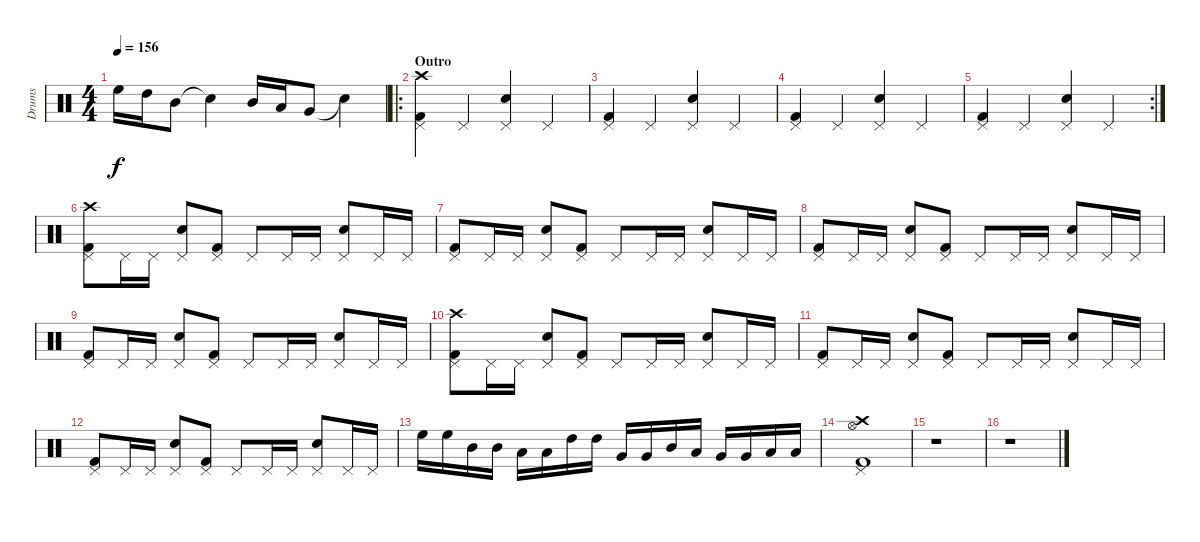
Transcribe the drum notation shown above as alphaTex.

\track ("Drums" "Drums") {instrument percussion}
\staff {score}
\articulation defaults
\ts (4 4)
\tempo 156
\clef neutral
\ks c "High Floor Tom (hit)".16{dy f} "High Tom (hit)".16 "Mid Tom (hit)".8 "Snare (hit)"{t}.4 "Mid Tom (hit)".16 "Low Tom (hit)".16 "Very Low Tom (hit)".8 "Snare (hit)"{t}.4
|
\ro
\section ("" "Outro")
("Kick (hit) 2" "Pedal Hi-Hat (hit)" "Crash high (hit)").4 "Pedal Hi-Hat (hit)".4 ("Snare (hit) 2" "Pedal Hi-Hat (hit)").4 "Pedal Hi-Hat (hit)".4 |
("Kick (hit) 2" "Pedal Hi-Hat (hit)").4 "Pedal Hi-Hat (hit)".4 ("Snare (hit) 2" "Pedal Hi-Hat (hit)").4 "Pedal Hi-Hat (hit)".4 |
("Kick (hit) 2" "Pedal Hi-Hat (hit)").4 "Pedal Hi-Hat (hit)".4 ("Snare (hit) 2" "Pedal Hi-Hat (hit)").4 "Pedal Hi-Hat (hit)".4 |
\rc 2
("Kick (hit) 2" "Pedal Hi-Hat (hit)").4 "Pedal Hi-Hat (hit)".4 ("Snare (hit) 2" "Pedal Hi-Hat (hit)").4 "Pedal Hi-Hat (hit)".4 |
("Kick (hit) 2" "Pedal Hi-Hat (hit)" "Crash high (hit)").8 "Pedal Hi-Hat (hit)".16 "Pedal Hi-Hat (hit)".16 ("Snare (hit) 2" "Pedal Hi-Hat (hit)").8 ("Kick (hit) 2" "Pedal Hi-Hat (hit)").8 "Pedal Hi-Hat (hit)".8 "Pedal Hi-Hat (hit)".16 "Pedal Hi-Hat (hit)".16 ("Snare (hit) 2" "Pedal Hi-Hat (hit)").8 "Pedal Hi-Hat (hit)".16 "Pedal Hi-Hat (hit)".16 |
("Kick (hit) 2" "Pedal Hi-Hat (hit)").8 "Pedal Hi-Hat (hit)".16 "Pedal Hi-Hat (hit)".16 ("Snare (hit) 2" "Pedal Hi-Hat (hit)").8 ("Kick (hit) 2" "Pedal Hi-Hat (hit)").8 "Pedal Hi-Hat (hit)".8 "Pedal Hi-Hat (hit)".16 "Pedal Hi-Hat (hit)".16 ("Snare (hit) 2" "Pedal Hi-Hat (hit)").8 "Pedal Hi-Hat (hit)".16 "Pedal Hi-Hat (hit)".16 |
("Kick (hit) 2" "Pedal Hi-Hat (hit)").8 "Pedal Hi-Hat (hit)".16 "Pedal Hi-Hat (hit)".16 ("Snare (hit) 2" "Pedal Hi-Hat (hit)").8 ("Kick (hit) 2" "Pedal Hi-Hat (hit)").8 "Pedal Hi-Hat (hit)".8 "Pedal Hi-Hat (hit)".16 "Pedal Hi-Hat (hit)".16 ("Snare (hit) 2" "Pedal Hi-Hat (hit)").8 "Pedal Hi-Hat (hit)".16 "Pedal Hi-Hat (hit)".16 |
("Kick (hit) 2" "Pedal Hi-Hat (hit)").8 "Pedal Hi-Hat (hit)".16 "Pedal Hi-Hat (hit)".16 ("Snare (hit) 2" "Pedal Hi-Hat (hit)").8 ("Kick (hit) 2" "Pedal Hi-Hat (hit)").8 "Pedal Hi-Hat (hit)".8 "Pedal Hi-Hat (hit)".16 "Pedal Hi-Hat (hit)".16 ("Snare (hit) 2" "Pedal Hi-Hat (hit)").8 "Pedal Hi-Hat (hit)".16 "Pedal Hi-Hat (hit)".16 |
("Kick (hit) 2" "Pedal Hi-Hat (hit)" "Crash high (hit)").8 "Pedal Hi-Hat (hit)".16 "Pedal Hi-Hat (hit)".16 ("Snare (hit) 2" "Pedal Hi-Hat (hit)").8 ("Kick (hit) 2" "Pedal Hi-Hat (hit)").8 "Pedal Hi-Hat (hit)".8 "Pedal Hi-Hat (hit)".16 "Pedal Hi-Hat (hit)".16 ("Snare (hit) 2" "Pedal Hi-Hat (hit)").8 "Pedal Hi-Hat (hit)".16 "Pedal Hi-Hat (hit)".16 |
("Kick (hit) 2" "Pedal Hi-Hat (hit)").8 "Pedal Hi-Hat (hit)".16 "Pedal Hi-Hat (hit)".16 ("Snare (hit) 2" "Pedal Hi-Hat (hit)").8 ("Kick (hit) 2" "Pedal Hi-Hat (hit)").8 "Pedal Hi-Hat (hit)".8 "Pedal Hi-Hat (hit)".16 "Pedal Hi-Hat (hit)".16 ("Snare (hit) 2" "Pedal Hi-Hat (hit)").8 "Pedal Hi-Hat (hit)".16 "Pedal Hi-Hat (hit)".16 |
("Kick (hit) 2" "Pedal Hi-Hat (hit)").8 "Pedal Hi-Hat (hit)".16 "Pedal Hi-Hat (hit)".16 ("Snare (hit) 2" "Pedal Hi-Hat (hit)").8 ("Kick (hit) 2" "Pedal Hi-Hat (hit)").8 "Pedal Hi-Hat (hit)".8 "Pedal Hi-Hat (hit)".16 "Pedal Hi-Hat (hit)".16 ("Snare (hit) 2" "Pedal Hi-Hat (hit)").8 "Pedal Hi-Hat (hit)".16 "Pedal Hi-Hat (hit)".16 |
"High Floor Tom (hit)".16 "High Floor Tom (hit)".16 "Mid Tom (hit)".16 "Mid Tom (hit)".16 "Low Tom (hit)".16 "Low Tom (hit)".16 "High Tom (hit)".16 "High Tom (hit)".16 "Very Low Tom (hit)".16 "Very Low Tom (hit)".16 "Mid Tom (hit)".16 "Low Tom (hit)".16 "Very Low Tom (hit)".16 "Very Low Tom (hit)".16 "Low Tom (hit)".16 "Low Tom (hit)".16 |
("Kick (hit) 2" "Pedal Hi-Hat (hit)" "Hi-Hat (open)" "Crash high (hit)").1 |
r.1 |
r.1
